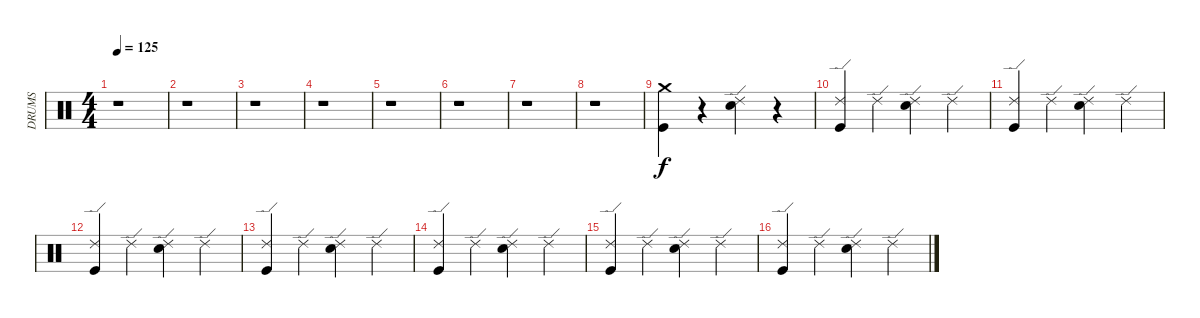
\track ("DRUMS" "DRUMS") {instrument percussion}
\staff {score}
\articulation defaults
\ts (4 4)
\tempo 125
\clef neutral
\ks c
r.1{dy f} |
r.1 |
r.1 |
r.1 |
r.1 |
r.1 |
r.1 |
r.1 |
("Crash medium (hit)" "Kick (hit)").4 r.4 ("Ride (edge) 2" "Snare (hit) 2").4 r.4 |
("Ride (edge) 2" "Kick (hit)").4 "Ride (edge) 2".4 ("Ride (edge) 2" "Snare (hit) 2").4 "Ride (edge) 2".4 |
("Ride (edge) 2" "Kick (hit)").4 "Ride (edge) 2".4 ("Ride (edge) 2" "Snare (hit) 2").4 "Ride (edge) 2".4 |
("Ride (edge) 2" "Kick (hit)").4 "Ride (edge) 2".4 ("Ride (edge) 2" "Snare (hit) 2").4 "Ride (edge) 2".4 |
("Ride (edge) 2" "Kick (hit)").4 "Ride (edge) 2".4 ("Ride (edge) 2" "Snare (hit) 2").4 "Ride (edge) 2".4 |
("Ride (edge) 2" "Kick (hit)").4 "Ride (edge) 2".4 ("Ride (edge) 2" "Snare (hit) 2").4 "Ride (edge) 2".4 |
("Ride (edge) 2" "Kick (hit)").4 "Ride (edge) 2".4 ("Ride (edge) 2" "Snare (hit) 2").4 "Ride (edge) 2".4 |
("Ride (edge) 2" "Kick (hit)").4 "Ride (edge) 2".4 ("Ride (edge) 2" "Snare (hit) 2").4 "Ride (edge) 2".4
